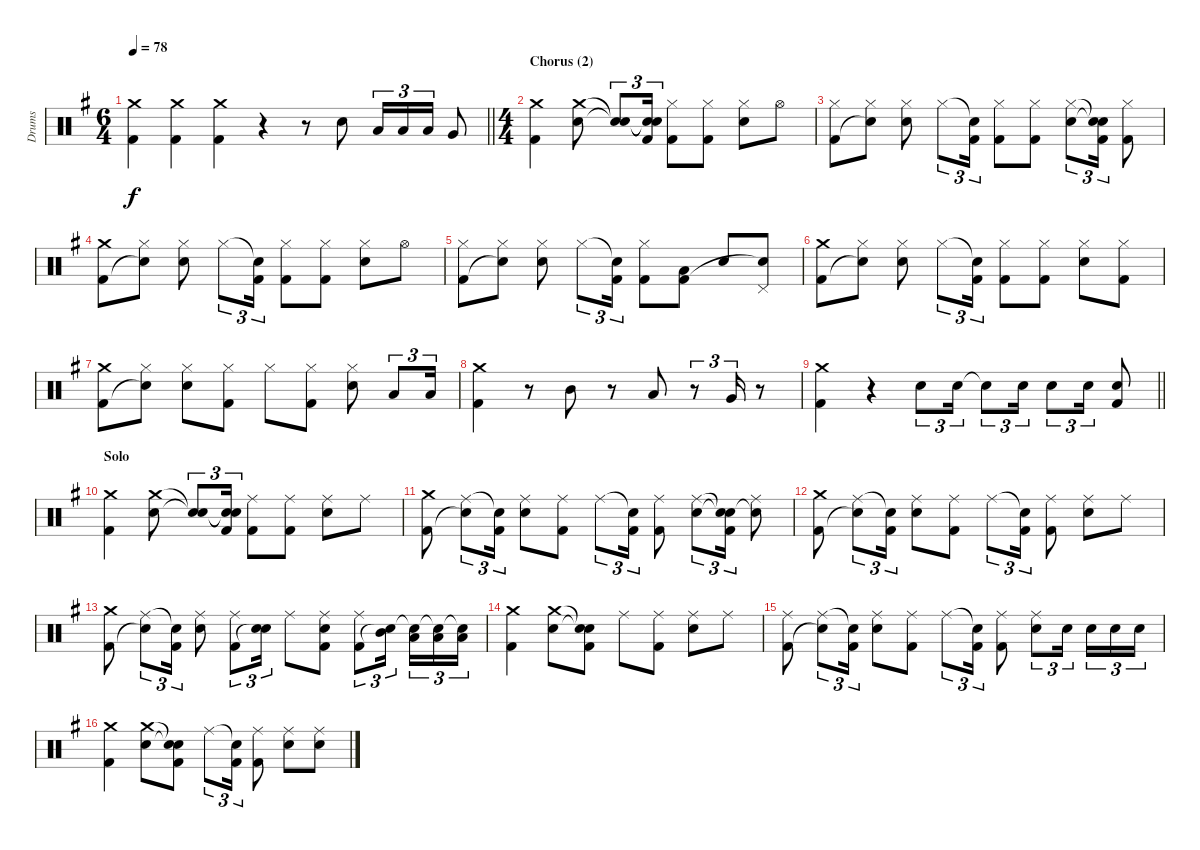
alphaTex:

\track ("Drums" "Drums") {instrument percussion}
\staff {score}
\articulation defaults
\ts (6 4)
\tempo 78
\clef neutral
\barLineRight lightlight
\ks g
("Crash medium (hit)" "Kick (hit) 2").4{dy f} ("Crash medium (hit)" "Kick (hit) 2").4 ("Crash medium (hit)" "Kick (hit) 2").4 r.4 r.8 "Electric Snare (hit)".8 "Low Tom (hit)".16{tu (3 2)} "Low Tom (hit)".16{tu (3 2)} "Low Tom (hit)".16{tu (3 2)} "Very Low Tom (hit)".8 |
\ts (4 4)
\section ("" "Chorus (2)")
("Crash medium (hit)" "Kick (hit) 2").4 ("Crash medium (hit)" "Electric Snare (hit)").8 ("Snare (hit)"{t} "Snare (hit)"{t}).8{tu (3 2)} ("Snare (hit)"{t} "Snare (hit)"{t} "Kick (hit) 2").16{tu (3 2)} ("Hi-Hat (closed)" "Kick (hit) 2").8 ("Hi-Hat (closed)" "Kick (hit) 2").8 ("Hi-Hat (closed)" "Electric Snare (hit)").8 "Hi-Hat (open)".8 |
("Hi-Hat (closed)" "Kick (hit) 2").8 ("Hi-Hat (closed)" "Snare (hit)"{t}).8 ("Hi-Hat (closed)" "Electric Snare (hit)").8 "Hi-Hat (closed)".8{tu (3 2)} ("Snare (hit)"{t} "Kick (hit) 2").16{tu (3 2)} ("Hi-Hat (closed)" "Kick (hit) 2").8 ("Hi-Hat (closed)" "Kick (hit) 2").8 ("Hi-Hat (closed)" "Electric Snare (hit)").8{tu (3 2)} ("Snare (hit)"{t} "Snare (hit)"{t} "Kick (hit) 2").16{tu (3 2)} ("Hi-Hat (closed)" "Kick (hit) 2").8 |
("Crash medium (hit)" "Kick (hit) 2").8 ("Hi-Hat (closed)" "Snare (hit)"{t}).8 ("Hi-Hat (closed)" "Electric Snare (hit)").8 "Hi-Hat (closed)".8{tu (3 2)} ("Snare (hit)"{t} "Kick (hit) 2").16{tu (3 2)} ("Hi-Hat (closed)" "Kick (hit) 2").8 ("Hi-Hat (closed)" "Kick (hit) 2").8 ("Hi-Hat (closed)" "Electric Snare (hit)").8 "Hi-Hat (open)".8 |
("Hi-Hat (closed)" "Kick (hit) 2").8 ("Hi-Hat (closed)" "Snare (hit)"{t}).8 ("Hi-Hat (closed)" "Electric Snare (hit)").8 "Hi-Hat (closed)".8{tu (3 2)} ("Snare (hit)"{t} "Kick (hit) 2").16{tu (3 2)} ("Hi-Hat (closed)" "Kick (hit) 2").8 ("Low Tom (hit)" "Kick (hit) 2").8 "Electric Snare (hit)".8 ("Pedal Hi-Hat (hit)" "Snare (hit)"{t}).8 |
("Crash medium (hit)" "Kick (hit) 2").8 ("Hi-Hat (closed)" "Snare (hit)"{t}).8 ("Hi-Hat (closed)" "Electric Snare (hit)").8 "Hi-Hat (closed)".8{tu (3 2)} ("Snare (hit)"{t} "Kick (hit) 2").16{tu (3 2)} ("Hi-Hat (closed)" "Kick (hit) 2").8 ("Hi-Hat (closed)" "Kick (hit) 2").8 ("Hi-Hat (closed)" "Electric Snare (hit)").8 ("Hi-Hat (closed)" "Kick (hit) 2").8 |
("Crash medium (hit)" "Kick (hit) 2").8 ("Hi-Hat (closed)" "Snare (hit)"{t}).8 ("Hi-Hat (closed)" "Electric Snare (hit)").8 ("Hi-Hat (closed)" "Kick (hit) 2").8 "Hi-Hat (closed)".8 ("Hi-Hat (closed)" "Kick (hit) 2").8 ("Hi-Hat (closed)" "Electric Snare (hit)").8 "Low Tom (hit)".8{tu (3 2)} "Low Tom (hit)".16{tu (3 2)} |
("Crash medium (hit)" "Kick (hit) 2").4 r.8 "Mid Tom (hit)".8 r.8 "Low Tom (hit)".8 r.8{tu (3 2)} "Very Low Tom (hit)".16{tu (3 2)} r.8 |
\barLineRight lightlight
("Crash medium (hit)" "Kick (hit) 2").4 r.4 "Electric Snare (hit)".8{tu (3 2)} "Electric Snare (hit)".16{tu (3 2)} "Snare (hit)"{t}.8{tu (3 2)} "Electric Snare (hit)".16{tu (3 2)} "Electric Snare (hit)".8{tu (3 2)} "Electric Snare (hit)".16{tu (3 2)} ("Electric Snare (hit)" "Kick (hit) 2").8 |
\section ("" "Solo")
("Crash medium (hit)" "Kick (hit) 2").4 ("Crash medium (hit)" "Electric Snare (hit)").8 ("Snare (hit)"{t} "Snare (hit)"{t}).8{tu (3 2)} ("Snare (hit)"{t} "Snare (hit)"{t} "Kick (hit) 2").16{tu (3 2)} ("Ride (middle)" "Kick (hit) 2").8 ("Ride (middle)" "Kick (hit) 2").8 ("Ride (middle)" "Electric Snare (hit)").8 "Ride (middle)".8 |
("Crash medium (hit)" "Kick (hit) 2").8 ("Ride (middle)" "Snare (hit)"{t}).8{tu (3 2)} ("Snare (hit)"{t} "Kick (hit) 2").16{tu (3 2)} ("Ride (middle)" "Electric Snare (hit)").8 ("Ride (middle)" "Kick (hit) 2").8 "Ride (middle)".8{tu (3 2)} ("Snare (hit)"{t} "Kick (hit) 2").16{tu (3 2)} ("Ride (middle)" "Kick (hit) 2").8 ("Ride (middle)" "Electric Snare (hit)").8{tu (3 2)} ("Snare (hit)"{t} "Snare (hit)"{t} "Kick (hit) 2").16{tu (3 2)} ("Ride (middle)" "Snare (hit)"{t}).8 |
("Crash medium (hit)" "Kick (hit) 2").8 ("Ride (middle)" "Snare (hit)"{t}).8{tu (3 2)} ("Snare (hit)"{t} "Kick (hit) 2").16{tu (3 2)} ("Ride (middle)" "Electric Snare (hit)").8 ("Ride (middle)" "Kick (hit) 2").8 "Ride (middle)".8{tu (3 2)} ("Snare (hit)"{t} "Kick (hit) 2").16{tu (3 2)} ("Ride (middle)" "Kick (hit) 2").8 ("Ride (middle)" "Electric Snare (hit)").8 "Ride (middle)".8 |
("Crash medium (hit)" "Kick (hit) 2").8 ("Ride (middle)" "Snare (hit)"{t}).8{tu (3 2)} ("Snare (hit)"{t} "Kick (hit) 2").16{tu (3 2)} ("Ride (middle)" "Electric Snare (hit)").8 ("Ride (middle)" "Kick (hit) 2").8{tu (3 2)} ("Electric Snare (hit)" "Snare (hit)"{t}).16{tu (3 2)} "Ride (middle)".8 ("Ride (middle)" "Electric Snare (hit)" "Kick (hit) 2").8 ("Ride (middle)" "Kick (hit) 2").8{tu (3 2)} ("Mid Tom (hit)" "Snare (hit)"{t}).16{tu (3 2)} ("Low Tom (hit)" "Snare (hit)"{t}).16{tu (3 2)} ("Low Tom (hit)" "Snare (hit)"{t}).16{tu (3 2)} ("Low Tom (hit)" "Snare (hit)"{t}).16{tu (3 2)} |
("Crash medium (hit)" "Kick (hit) 2").4 ("Crash medium (hit)" "Electric Snare (hit)").8 ("Snare (hit)"{t} "Snare (hit)"{t} "Kick (hit) 2").8 "Ride (middle)".8 ("Ride (middle)" "Kick (hit) 2").8 ("Ride (middle)" "Electric Snare (hit)").8 "Ride (middle)".8 |
("Ride (middle)" "Kick (hit) 2").8 ("Ride (middle)" "Snare (hit)"{t}).8{tu (3 2)} ("Snare (hit)"{t} "Kick (hit) 2").16{tu (3 2)} ("Ride (middle)" "Electric Snare (hit)").8 ("Ride (middle)" "Kick (hit) 2").8 "Ride (middle)".8{tu (3 2)} ("Snare (hit)"{t} "Kick (hit) 2").16{tu (3 2)} ("Ride (middle)" "Kick (hit) 2").8 ("Ride (middle)" "Electric Snare (hit)").8{tu (3 2)} "Electric Snare (hit)".16{tu (3 2)} "Electric Snare (hit)".16{tu (3 2)} "Electric Snare (hit)".16{tu (3 2)} "Electric Snare (hit)".16{tu (3 2)} |
("Crash medium (hit)" "Kick (hit) 2").4 ("Crash medium (hit)" "Electric Snare (hit)").8 ("Snare (hit)"{t} "Snare (hit)"{t} "Kick (hit) 2").8 "Ride (middle)".8{tu (3 2)} ("Snare (hit)"{t} "Kick (hit) 2").16{tu (3 2)} ("Ride (middle)" "Kick (hit) 2").8 ("Ride (middle)" "Electric Snare (hit)").8 ("Ride (middle)" "Electric Snare (hit)").8
